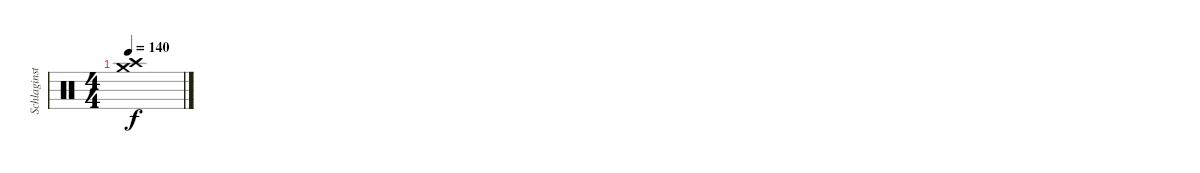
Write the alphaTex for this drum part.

\track ("Schlaginstrumente - Auswahl" "Schlaginst") {instrument percussion}
\staff {score}
\articulation defaults
\ts (4 4)
\tempo 140
\clef neutral
\ks c
("Crash medium (hit)" "Crash high (hit)").1{dy f}
